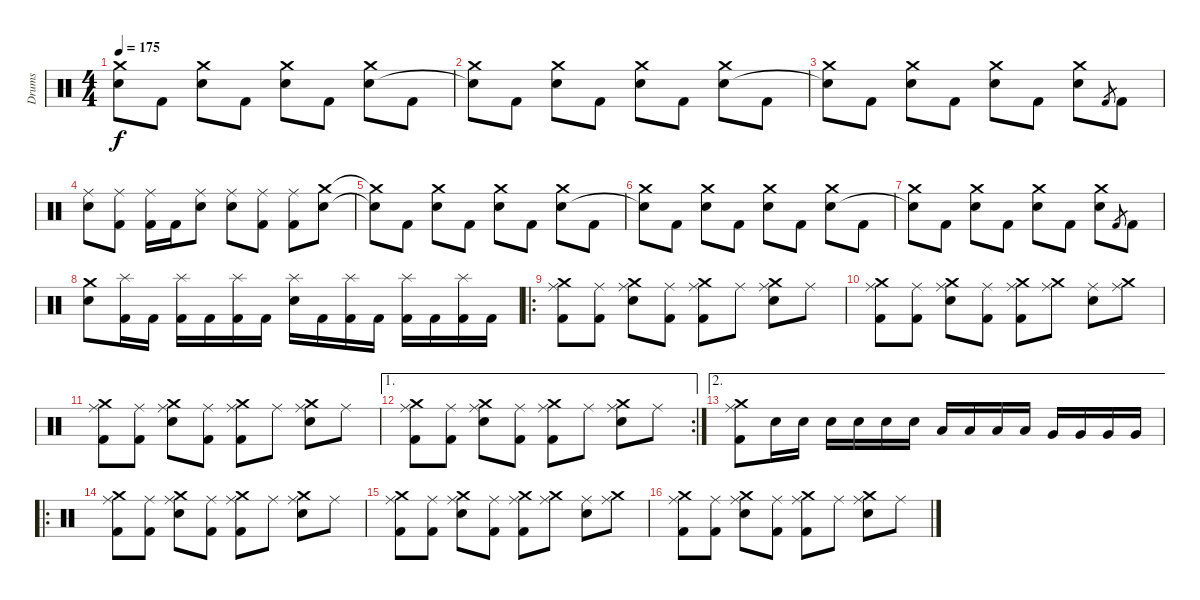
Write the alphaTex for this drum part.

\track ("Drums" "Drums") {instrument percussion}
\staff {score}
\articulation defaults
\ts (4 4)
\tempo 175
\clef neutral
\ks c
("Crash medium (hit)"{t} "Snare (hit) 2"{t}).8{dy f} "Kick (hit) 2".8 ("Crash medium (hit)" "Snare (hit) 2").8 "Kick (hit) 2".8 ("Crash medium (hit)" "Snare (hit) 2").8 "Kick (hit) 2".8 ("Crash medium (hit)" "Snare (hit) 2").8 "Kick (hit) 2".8 |
("Crash medium (hit)" "Snare (hit) 2"{t}).8 "Kick (hit) 2".8 ("Crash medium (hit)" "Snare (hit) 2").8 "Kick (hit) 2".8 ("Crash medium (hit)" "Snare (hit) 2").8 "Kick (hit) 2".8 ("Crash medium (hit)" "Snare (hit) 2").8 "Kick (hit) 2".8 |
("Crash medium (hit)" "Snare (hit) 2"{t}).8 "Kick (hit) 2".8 ("Crash medium (hit)" "Snare (hit) 2").8 "Kick (hit) 2".8 ("Crash medium (hit)" "Snare (hit) 2").8 "Kick (hit) 2".8 ("Crash medium (hit)" "Snare (hit) 2").8 "Kick (hit) 2".8{gr} "Kick (hit) 2".8 |
("Ride (middle)" "Snare (hit) 2").8 ("Ride (middle)" "Kick (hit) 2").8 ("Ride (middle)" "Kick (hit) 2").16 "Kick (hit) 2".16 ("Ride (middle)" "Snare (hit) 2").8 ("Ride (middle)" "Snare (hit) 2").8 ("Ride (middle)" "Kick (hit) 2").8 ("Ride (middle)" "Kick (hit) 2").8 ("Crash medium (hit)" "Snare (hit) 2").8 |
("Crash medium (hit)"{t} "Snare (hit) 2"{t}).8 "Kick (hit) 2".8 ("Crash medium (hit)" "Snare (hit) 2").8 "Kick (hit) 2".8 ("Crash medium (hit)" "Snare (hit) 2").8 "Kick (hit) 2".8 ("Crash medium (hit)" "Snare (hit) 2").8 "Kick (hit) 2".8 |
("Crash medium (hit)" "Snare (hit) 2"{t}).8 "Kick (hit) 2".8 ("Crash medium (hit)" "Snare (hit) 2").8 "Kick (hit) 2".8 ("Crash medium (hit)" "Snare (hit) 2").8 "Kick (hit) 2".8 ("Crash medium (hit)" "Snare (hit) 2").8 "Kick (hit) 2".8 |
("Crash medium (hit)" "Snare (hit) 2"{t}).8 "Kick (hit) 2".8 ("Crash medium (hit)" "Snare (hit) 2").8 "Kick (hit) 2".8 ("Crash medium (hit)" "Snare (hit) 2").8 "Kick (hit) 2".8 ("Crash medium (hit)" "Snare (hit) 2").8 "Kick (hit) 2".8{gr} "Kick (hit) 2".8 |
("Crash medium (hit)" "Snare (hit) 2").8 ("Splash (hit)" "Kick (hit) 2").16 "Kick (hit) 2".16 ("Splash (hit)" "Kick (hit) 2").16 "Kick (hit) 2".16 ("Splash (hit)" "Kick (hit) 2").16 "Kick (hit) 2".16 ("Splash (hit)" "Snare (hit) 2").16 "Kick (hit) 2".16 ("Splash (hit)" "Kick (hit) 2").16 "Kick (hit) 2".16 ("Splash (hit)" "Kick (hit) 2").16 "Kick (hit) 2".16 ("Splash (hit)" "Kick (hit) 2").16 "Kick (hit) 2".16 |
\ro
("Crash medium (hit)" "Ride (middle)" "Kick (hit) 2").8 ("Ride (middle)" "Kick (hit) 2").8 ("Crash medium (hit)" "Ride (middle)" "Snare (hit) 2").8 ("Ride (middle)" "Kick (hit) 2").8 ("Crash medium (hit)" "Ride (middle)" "Kick (hit) 2").8 "Ride (middle)".8 ("Crash medium (hit)" "Ride (middle)" "Snare (hit) 2").8 "Ride (middle)".8 |
("Crash medium (hit)" "Ride (middle)" "Kick (hit) 2").8 ("Ride (middle)" "Kick (hit) 2").8 ("Crash medium (hit)" "Ride (middle)" "Snare (hit) 2").8 ("Ride (middle)" "Kick (hit) 2").8 ("Crash medium (hit)" "Ride (middle)" "Kick (hit) 2").8 ("Crash medium (hit)" "Ride (middle)").8 ("Ride (middle)" "Snare (hit) 2").8 ("Crash medium (hit)" "Ride (middle)").8 |
("Crash medium (hit)" "Ride (middle)" "Kick (hit) 2").8 ("Ride (middle)" "Kick (hit) 2").8 ("Crash medium (hit)" "Ride (middle)" "Snare (hit) 2").8 ("Ride (middle)" "Kick (hit) 2").8 ("Crash medium (hit)" "Ride (middle)" "Kick (hit) 2").8 "Ride (middle)".8 ("Crash medium (hit)" "Ride (middle)" "Snare (hit) 2").8 "Ride (middle)".8 |
\ae 1
\rc 2
("Crash medium (hit)" "Ride (middle)" "Kick (hit) 2").8 ("Ride (middle)" "Kick (hit) 2").8 ("Crash medium (hit)" "Ride (middle)" "Snare (hit) 2").8 ("Ride (middle)" "Kick (hit) 2").8 ("Crash medium (hit)" "Ride (middle)" "Kick (hit) 2").8 "Ride (middle)".8 ("Crash medium (hit)" "Ride (middle)" "Snare (hit) 2").8 "Ride (middle)".8 |
\ae 2
("Crash medium (hit)" "Ride (middle)" "Kick (hit) 2").8 "Snare (hit) 2".16 "Snare (hit) 2".16 "Snare (hit) 2".16 "Snare (hit) 2".16 "Snare (hit) 2".16 "Snare (hit) 2".16 "Low Tom (hit)".16 "Low Tom (hit)".16 "Low Tom (hit)".16 "Low Tom (hit)".16 "Very Low Tom (hit)".16 "Very Low Tom (hit)".16 "Very Low Tom (hit)".16 "Very Low Tom (hit)".16 |
\ro
("Crash medium (hit)" "Ride (middle)" "Kick (hit) 2").8 ("Ride (middle)" "Kick (hit) 2").8 ("Crash medium (hit)" "Ride (middle)" "Snare (hit) 2").8 ("Ride (middle)" "Kick (hit) 2").8 ("Crash medium (hit)" "Ride (middle)" "Kick (hit) 2").8 "Ride (middle)".8 ("Crash medium (hit)" "Ride (middle)" "Snare (hit) 2").8 "Ride (middle)".8 |
("Crash medium (hit)" "Ride (middle)" "Kick (hit) 2").8 ("Ride (middle)" "Kick (hit) 2").8 ("Crash medium (hit)" "Ride (middle)" "Snare (hit) 2").8 ("Ride (middle)" "Kick (hit) 2").8 ("Crash medium (hit)" "Ride (middle)" "Kick (hit) 2").8 ("Crash medium (hit)" "Ride (middle)").8 ("Ride (middle)" "Snare (hit) 2").8 ("Crash medium (hit)" "Ride (middle)").8 |
("Crash medium (hit)" "Ride (middle)" "Kick (hit) 2").8 ("Ride (middle)" "Kick (hit) 2").8 ("Crash medium (hit)" "Ride (middle)" "Snare (hit) 2").8 ("Ride (middle)" "Kick (hit) 2").8 ("Crash medium (hit)" "Ride (middle)" "Kick (hit) 2").8 "Ride (middle)".8 ("Crash medium (hit)" "Ride (middle)" "Snare (hit) 2").8 "Ride (middle)".8
